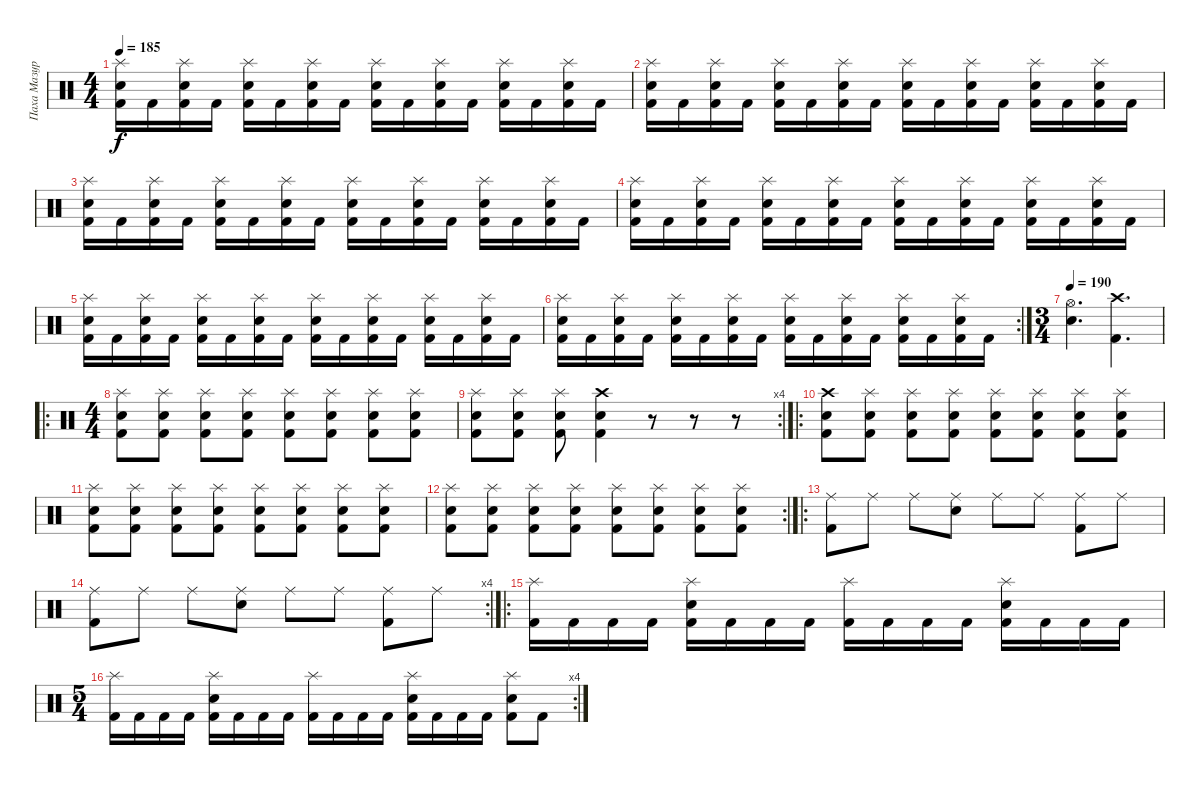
\track ("Паха Мазуркевич" "Паха Мазур") {instrument percussion}
\staff {score}
\articulation defaults
\ts (4 4)
\tempo 185
\clef neutral
\ks c
("Splash (hit)" "Snare (hit) 2" "Kick (hit) 2").16{dy f} "Kick (hit) 2".16 ("Splash (hit)" "Snare (hit) 2" "Kick (hit) 2").16 "Kick (hit) 2".16 ("Splash (hit)" "Snare (hit) 2" "Kick (hit) 2").16 "Kick (hit) 2".16 ("Splash (hit)" "Snare (hit) 2" "Kick (hit) 2").16 "Kick (hit) 2".16 ("Splash (hit)" "Snare (hit) 2" "Kick (hit) 2").16 "Kick (hit) 2".16 ("Splash (hit)" "Snare (hit) 2" "Kick (hit) 2").16 "Kick (hit) 2".16 ("Splash (hit)" "Snare (hit) 2" "Kick (hit) 2").16 "Kick (hit) 2".16 ("Splash (hit)" "Snare (hit) 2" "Kick (hit) 2").16 "Kick (hit) 2".16 |
("Splash (hit)" "Snare (hit) 2" "Kick (hit) 2").16 "Kick (hit) 2".16 ("Splash (hit)" "Snare (hit) 2" "Kick (hit) 2").16 "Kick (hit) 2".16 ("Splash (hit)" "Snare (hit) 2" "Kick (hit) 2").16 "Kick (hit) 2".16 ("Splash (hit)" "Snare (hit) 2" "Kick (hit) 2").16 "Kick (hit) 2".16 ("Splash (hit)" "Snare (hit) 2" "Kick (hit) 2").16 "Kick (hit) 2".16 ("Splash (hit)" "Snare (hit) 2" "Kick (hit) 2").16 "Kick (hit) 2".16 ("Splash (hit)" "Snare (hit) 2" "Kick (hit) 2").16 "Kick (hit) 2".16 ("Splash (hit)" "Snare (hit) 2" "Kick (hit) 2").16 "Kick (hit) 2".16 |
("Splash (hit)" "Snare (hit) 2" "Kick (hit) 2").16 "Kick (hit) 2".16 ("Splash (hit)" "Snare (hit) 2" "Kick (hit) 2").16 "Kick (hit) 2".16 ("Splash (hit)" "Snare (hit) 2" "Kick (hit) 2").16 "Kick (hit) 2".16 ("Splash (hit)" "Snare (hit) 2" "Kick (hit) 2").16 "Kick (hit) 2".16 ("Splash (hit)" "Snare (hit) 2" "Kick (hit) 2").16 "Kick (hit) 2".16 ("Splash (hit)" "Snare (hit) 2" "Kick (hit) 2").16 "Kick (hit) 2".16 ("Splash (hit)" "Snare (hit) 2" "Kick (hit) 2").16 "Kick (hit) 2".16 ("Splash (hit)" "Snare (hit) 2" "Kick (hit) 2").16 "Kick (hit) 2".16 |
("Splash (hit)" "Snare (hit) 2" "Kick (hit) 2").16 "Kick (hit) 2".16 ("Splash (hit)" "Snare (hit) 2" "Kick (hit) 2").16 "Kick (hit) 2".16 ("Splash (hit)" "Snare (hit) 2" "Kick (hit) 2").16 "Kick (hit) 2".16 ("Splash (hit)" "Snare (hit) 2" "Kick (hit) 2").16 "Kick (hit) 2".16 ("Splash (hit)" "Snare (hit) 2" "Kick (hit) 2").16 "Kick (hit) 2".16 ("Splash (hit)" "Snare (hit) 2" "Kick (hit) 2").16 "Kick (hit) 2".16 ("Splash (hit)" "Snare (hit) 2" "Kick (hit) 2").16 "Kick (hit) 2".16 ("Splash (hit)" "Snare (hit) 2" "Kick (hit) 2").16 "Kick (hit) 2".16 |
("Splash (hit)" "Snare (hit) 2" "Kick (hit) 2").16 "Kick (hit) 2".16 ("Splash (hit)" "Snare (hit) 2" "Kick (hit) 2").16 "Kick (hit) 2".16 ("Splash (hit)" "Snare (hit) 2" "Kick (hit) 2").16 "Kick (hit) 2".16 ("Splash (hit)" "Snare (hit) 2" "Kick (hit) 2").16 "Kick (hit) 2".16 ("Splash (hit)" "Snare (hit) 2" "Kick (hit) 2").16 "Kick (hit) 2".16 ("Splash (hit)" "Snare (hit) 2" "Kick (hit) 2").16 "Kick (hit) 2".16 ("Splash (hit)" "Snare (hit) 2" "Kick (hit) 2").16 "Kick (hit) 2".16 ("Splash (hit)" "Snare (hit) 2" "Kick (hit) 2").16 "Kick (hit) 2".16 |
\rc 2
("Splash (hit)" "Snare (hit) 2" "Kick (hit) 2").16 "Kick (hit) 2".16 ("Splash (hit)" "Snare (hit) 2" "Kick (hit) 2").16 "Kick (hit) 2".16 ("Splash (hit)" "Snare (hit) 2" "Kick (hit) 2").16 "Kick (hit) 2".16 ("Splash (hit)" "Snare (hit) 2" "Kick (hit) 2").16 "Kick (hit) 2".16 ("Splash (hit)" "Snare (hit) 2" "Kick (hit) 2").16 "Kick (hit) 2".16 ("Splash (hit)" "Snare (hit) 2" "Kick (hit) 2").16 "Kick (hit) 2".16 ("Splash (hit)" "Snare (hit) 2" "Kick (hit) 2").16 "Kick (hit) 2".16 ("Splash (hit)" "Snare (hit) 2" "Kick (hit) 2").16 "Kick (hit) 2".16 |
\ts (3 4)
\tempo 190
("Hi-Hat (open)" "Snare (hit) 2").4{d} ("Crash high (hit)" "Kick (hit) 2").4{d} |
\ro
\ts (4 4)
("Splash (hit)" "Snare (hit) 2" "Kick (hit) 2").8 ("Splash (hit)" "Snare (hit) 2" "Kick (hit) 2").8 ("Splash (hit)" "Snare (hit) 2" "Kick (hit) 2").8 ("Splash (hit)" "Snare (hit) 2" "Kick (hit) 2").8 ("Splash (hit)" "Snare (hit) 2" "Kick (hit) 2").8 ("Splash (hit)" "Snare (hit) 2" "Kick (hit) 2").8 ("Splash (hit)" "Snare (hit) 2" "Kick (hit) 2").8 ("Splash (hit)" "Snare (hit) 2" "Kick (hit) 2").8 |
\rc 4
("Splash (hit)" "Snare (hit) 2" "Kick (hit) 2").8 ("Splash (hit)" "Snare (hit) 2" "Kick (hit) 2").8 ("Splash (hit)" "Snare (hit) 2" "Kick (hit) 2").8 ("Crash high (hit)" "Snare (hit) 2" "Kick (hit) 2").4 r.8 r.8 r.8 |
\ro
("Crash high (hit)" "Snare (hit) 2" "Kick (hit) 2").8 ("Splash (hit)" "Snare (hit) 2" "Kick (hit) 2").8 ("Splash (hit)" "Snare (hit) 2" "Kick (hit) 2").8 ("Splash (hit)" "Snare (hit) 2" "Kick (hit) 2").8 ("Splash (hit)" "Snare (hit) 2" "Kick (hit) 2").8 ("Splash (hit)" "Snare (hit) 2" "Kick (hit) 2").8 ("Splash (hit)" "Snare (hit) 2" "Kick (hit) 2").8 ("Splash (hit)" "Snare (hit) 2" "Kick (hit) 2").8 |
("Splash (hit)" "Snare (hit) 2" "Kick (hit) 2").8 ("Splash (hit)" "Snare (hit) 2" "Kick (hit) 2").8 ("Splash (hit)" "Snare (hit) 2" "Kick (hit) 2").8 ("Splash (hit)" "Snare (hit) 2" "Kick (hit) 2").8 ("Splash (hit)" "Snare (hit) 2" "Kick (hit) 2").8 ("Splash (hit)" "Snare (hit) 2" "Kick (hit) 2").8 ("Splash (hit)" "Snare (hit) 2" "Kick (hit) 2").8 ("Splash (hit)" "Snare (hit) 2" "Kick (hit) 2").8 |
\rc 2
("Splash (hit)" "Snare (hit) 2" "Kick (hit) 2").8 ("Splash (hit)" "Snare (hit) 2" "Kick (hit) 2").8 ("Splash (hit)" "Snare (hit) 2" "Kick (hit) 2").8 ("Splash (hit)" "Snare (hit) 2" "Kick (hit) 2").8 ("Splash (hit)" "Snare (hit) 2" "Kick (hit) 2").8 ("Splash (hit)" "Snare (hit) 2" "Kick (hit) 2").8 ("Splash (hit)" "Snare (hit) 2" "Kick (hit) 2").8 ("Splash (hit)" "Snare (hit) 2" "Kick (hit) 2").8 |
\ro
("Ride (middle)" "Kick (hit) 2").8 "Ride (middle)".8 "Ride (middle)".8 ("Ride (middle)" "Snare (hit) 2").8 "Ride (middle)".8 "Ride (middle)".8 ("Ride (middle)" "Kick (hit) 2").8 "Ride (middle)".8 |
\rc 4
("Ride (middle)" "Kick (hit) 2").8 "Ride (middle)".8 "Ride (middle)".8 ("Ride (middle)" "Snare (hit) 2").8 "Ride (middle)".8 "Ride (middle)".8 ("Ride (middle)" "Kick (hit) 2").8 "Ride (middle)".8 |
\ro
("Splash (hit)" "Kick (hit) 2").16 "Kick (hit) 2".16 "Kick (hit) 2".16 "Kick (hit) 2".16 ("Splash (hit)" "Snare (hit) 2" "Kick (hit) 2").16 "Kick (hit) 2".16 "Kick (hit) 2".16 "Kick (hit) 2".16 ("Splash (hit)" "Kick (hit) 2").16 "Kick (hit) 2".16 "Kick (hit) 2".16 "Kick (hit) 2".16 ("Splash (hit)" "Snare (hit) 2" "Kick (hit) 2").16 "Kick (hit) 2".16 "Kick (hit) 2".16 "Kick (hit) 2".16 |
\rc 4
\ts (5 4)
("Splash (hit)" "Kick (hit) 2").16 "Kick (hit) 2".16 "Kick (hit) 2".16 "Kick (hit) 2".16 ("Splash (hit)" "Snare (hit) 2" "Kick (hit) 2").16 "Kick (hit) 2".16 "Kick (hit) 2".16 "Kick (hit) 2".16 ("Splash (hit)" "Kick (hit) 2").16 "Kick (hit) 2".16 "Kick (hit) 2".16 "Kick (hit) 2".16 ("Splash (hit)" "Snare (hit) 2" "Kick (hit) 2").16 "Kick (hit) 2".16 "Kick (hit) 2".16 "Kick (hit) 2".16 ("Splash (hit)" "Snare (hit) 2" "Kick (hit) 2").8 "Kick (hit) 2".8
